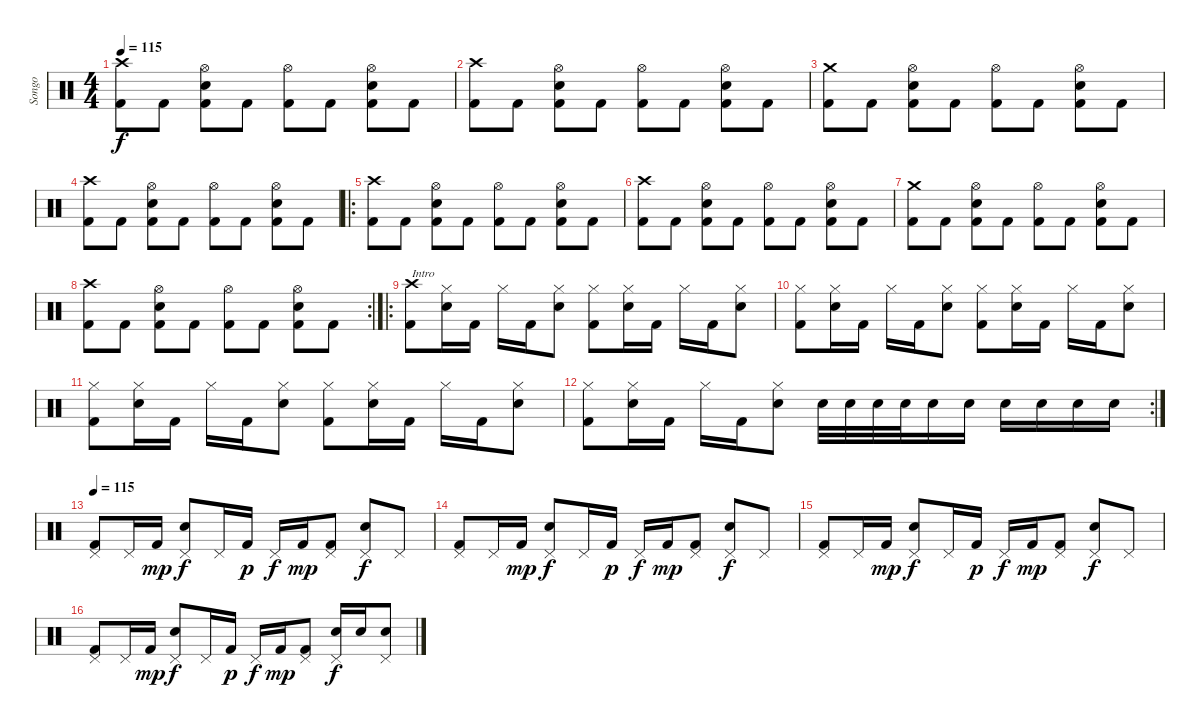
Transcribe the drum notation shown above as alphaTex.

\track ("Songo" "Songo") {instrument percussion}
\staff {score}
\articulation defaults
\ts (4 4)
\tempo 115
\clef neutral
\ks c
("Crash high (hit)" "Kick (hit) 2").8{dy f} "Kick (hit) 2".8 ("Kick (hit) 2" "Electric Snare (hit)" "Hi-Hat (open)").8 "Kick (hit) 2".8 ("Kick (hit) 2" "Hi-Hat (open)").8 "Kick (hit) 2".8 ("Kick (hit) 2" "Electric Snare (hit)" "Hi-Hat (open)").8 "Kick (hit) 2".8 |
("Crash high (hit)" "Kick (hit) 2").8 "Kick (hit) 2".8 ("Kick (hit) 2" "Electric Snare (hit)" "Hi-Hat (open)").8 "Kick (hit) 2".8 ("Kick (hit) 2" "Hi-Hat (open)").8 "Kick (hit) 2".8 ("Kick (hit) 2" "Electric Snare (hit)" "Hi-Hat (open)").8 "Kick (hit) 2".8 |
("Crash medium (hit)" "Kick (hit) 2").8 "Kick (hit) 2".8 ("Kick (hit) 2" "Electric Snare (hit)" "Hi-Hat (open)").8 "Kick (hit) 2".8 ("Kick (hit) 2" "Hi-Hat (open)").8 "Kick (hit) 2".8 ("Kick (hit) 2" "Electric Snare (hit)" "Hi-Hat (open)").8 "Kick (hit) 2".8 |
("Crash high (hit)" "Kick (hit) 2").8 "Kick (hit) 2".8 ("Kick (hit) 2" "Electric Snare (hit)" "Hi-Hat (open)").8 "Kick (hit) 2".8 ("Kick (hit) 2" "Hi-Hat (open)").8 "Kick (hit) 2".8 ("Kick (hit) 2" "Electric Snare (hit)" "Hi-Hat (open)").8 "Kick (hit) 2".8 |
\ro
("Crash high (hit)" "Kick (hit) 2").8 "Kick (hit) 2".8 ("Kick (hit) 2" "Electric Snare (hit)" "Hi-Hat (open)").8 "Kick (hit) 2".8 ("Kick (hit) 2" "Hi-Hat (open)").8 "Kick (hit) 2".8 ("Kick (hit) 2" "Electric Snare (hit)" "Hi-Hat (open)").8 "Kick (hit) 2".8 |
("Crash high (hit)" "Kick (hit) 2").8 "Kick (hit) 2".8 ("Kick (hit) 2" "Electric Snare (hit)" "Hi-Hat (open)").8 "Kick (hit) 2".8 ("Kick (hit) 2" "Hi-Hat (open)").8 "Kick (hit) 2".8 ("Kick (hit) 2" "Electric Snare (hit)" "Hi-Hat (open)").8 "Kick (hit) 2".8 |
("Crash medium (hit)" "Kick (hit) 2").8 "Kick (hit) 2".8 ("Kick (hit) 2" "Electric Snare (hit)" "Hi-Hat (open)").8 "Kick (hit) 2".8 ("Kick (hit) 2" "Hi-Hat (open)").8 "Kick (hit) 2".8 ("Kick (hit) 2" "Electric Snare (hit)" "Hi-Hat (open)").8 "Kick (hit) 2".8 |
\rc 2
("Crash high (hit)" "Kick (hit) 2").8 "Kick (hit) 2".8 ("Kick (hit) 2" "Electric Snare (hit)" "Hi-Hat (open)").8 "Kick (hit) 2".8 ("Kick (hit) 2" "Hi-Hat (open)").8 "Kick (hit) 2".8 ("Kick (hit) 2" "Electric Snare (hit)" "Hi-Hat (open)").8 "Kick (hit) 2".8 |
\ro
("Kick (hit) 2" "Crash high (hit)").8{txt "Intro"} ("Snare (hit) 2" "Hi-Hat (closed)").16 "Kick (hit) 2".16 "Hi-Hat (closed)".16 "Kick (hit) 2".16 ("Snare (hit) 2" "Hi-Hat (closed)").8 ("Kick (hit) 2" "Hi-Hat (closed)").8 ("Snare (hit) 2" "Hi-Hat (closed)").16 "Kick (hit) 2".16 "Hi-Hat (closed)".16 "Kick (hit) 2".16 ("Snare (hit) 2" "Hi-Hat (closed)").8 |
("Kick (hit) 2" "Hi-Hat (closed)").8 ("Snare (hit) 2" "Hi-Hat (closed)").16 "Kick (hit) 2".16 "Hi-Hat (closed)".16 "Kick (hit) 2".16 ("Snare (hit) 2" "Hi-Hat (closed)").8 ("Kick (hit) 2" "Hi-Hat (closed)").8 ("Snare (hit) 2" "Hi-Hat (closed)").16 "Kick (hit) 2".16 "Hi-Hat (closed)".16 "Kick (hit) 2".16 ("Snare (hit) 2" "Hi-Hat (closed)").8 |
("Kick (hit) 2" "Hi-Hat (closed)").8 ("Snare (hit) 2" "Hi-Hat (closed)").16 "Kick (hit) 2".16 "Hi-Hat (closed)".16 "Kick (hit) 2".16 ("Snare (hit) 2" "Hi-Hat (closed)").8 ("Kick (hit) 2" "Hi-Hat (closed)").8 ("Snare (hit) 2" "Hi-Hat (closed)").16 "Kick (hit) 2".16 "Hi-Hat (closed)".16 "Kick (hit) 2".16 ("Snare (hit) 2" "Hi-Hat (closed)").8 |
\rc 2
("Kick (hit) 2" "Hi-Hat (closed)").8 ("Snare (hit) 2" "Hi-Hat (closed)").16 "Kick (hit) 2".16 "Hi-Hat (closed)".16 "Kick (hit) 2".16 ("Snare (hit) 2" "Hi-Hat (closed)").8 "Snare (hit) 2".32 "Snare (hit) 2".32 "Snare (hit) 2".32 "Snare (hit) 2".32 "Snare (hit) 2".16 "Snare (hit) 2".16 "Snare (hit) 2".16 "Snare (hit) 2".16 "Snare (hit) 2".16 "Snare (hit) 2".16 |
\tempo 115
("Pedal Hi-Hat (hit)" "Kick (hit) 2").8 "Pedal Hi-Hat (hit)".16 "Kick (hit) 2".16{dy mp} ("Pedal Hi-Hat (hit)" "Snare (hit) 2").8{dy f} "Pedal Hi-Hat (hit)".16 "Kick (hit) 2".16{dy p} "Pedal Hi-Hat (hit)".16{dy f} "Kick (hit) 2".16{dy mp} ("Pedal Hi-Hat (hit)" "Kick (hit) 2").8 ("Pedal Hi-Hat (hit)" "Snare (hit) 2").8{dy f} "Pedal Hi-Hat (hit)".8 |
("Pedal Hi-Hat (hit)" "Kick (hit) 2").8 "Pedal Hi-Hat (hit)".16 "Kick (hit) 2".16{dy mp} ("Pedal Hi-Hat (hit)" "Snare (hit) 2").8{dy f} "Pedal Hi-Hat (hit)".16 "Kick (hit) 2".16{dy p} "Pedal Hi-Hat (hit)".16{dy f} "Kick (hit) 2".16{dy mp} ("Pedal Hi-Hat (hit)" "Kick (hit) 2").8 ("Pedal Hi-Hat (hit)" "Snare (hit) 2").8{dy f} "Pedal Hi-Hat (hit)".8 |
("Pedal Hi-Hat (hit)" "Kick (hit) 2").8 "Pedal Hi-Hat (hit)".16 "Kick (hit) 2".16{dy mp} ("Pedal Hi-Hat (hit)" "Snare (hit) 2").8{dy f} "Pedal Hi-Hat (hit)".16 "Kick (hit) 2".16{dy p} "Pedal Hi-Hat (hit)".16{dy f} "Kick (hit) 2".16{dy mp} ("Pedal Hi-Hat (hit)" "Kick (hit) 2").8 ("Pedal Hi-Hat (hit)" "Snare (hit) 2").8{dy f} "Pedal Hi-Hat (hit)".8 |
("Pedal Hi-Hat (hit)" "Kick (hit) 2").8 "Pedal Hi-Hat (hit)".16 "Kick (hit) 2".16{dy mp} ("Pedal Hi-Hat (hit)" "Snare (hit) 2").8{dy f} "Pedal Hi-Hat (hit)".16 "Kick (hit) 2".16{dy p} "Pedal Hi-Hat (hit)".16{dy f} "Kick (hit) 2".16{dy mp} ("Pedal Hi-Hat (hit)" "Kick (hit) 2").8 ("Pedal Hi-Hat (hit)" "Snare (hit) 2").16{dy f} "Snare (hit) 2".16 ("Pedal Hi-Hat (hit)" "Snare (hit) 2").8
